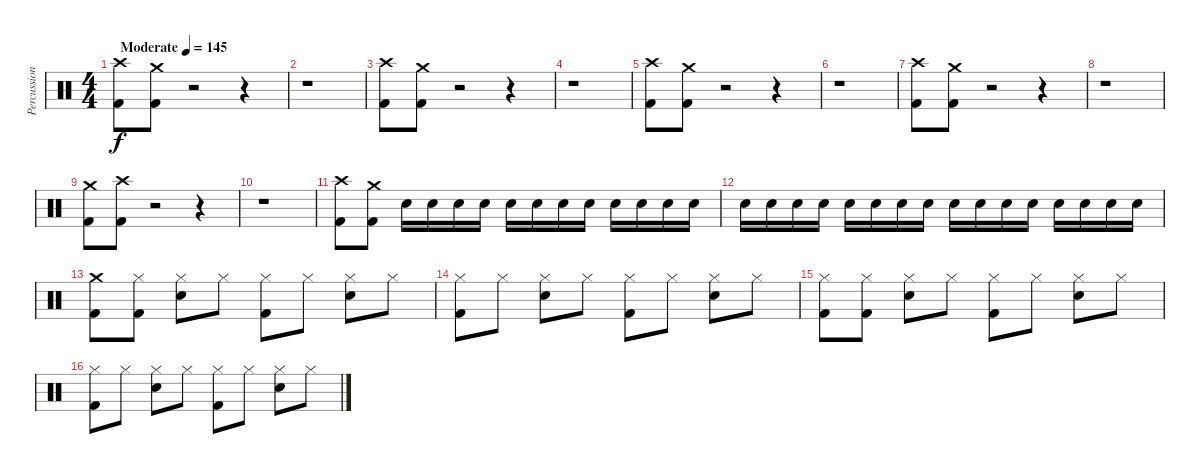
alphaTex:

\track ("Percussion" "Percussion") {instrument percussion}
\staff {score}
\articulation defaults
\ts (4 4)
\tempo (145 "Moderate")
\clef neutral
\ks c
("Kick (hit) 2" "Crash high (hit)").8{dy f} ("Kick (hit) 2" "Crash medium (hit)").8 r.2 r.4 |
r.1 |
("Kick (hit) 2" "Crash high (hit)").8 ("Kick (hit) 2" "Crash medium (hit)").8 r.2 r.4 |
r.1 |
("Kick (hit) 2" "Crash high (hit)").8 ("Kick (hit) 2" "Crash medium (hit)").8 r.2 r.4 |
r.1 |
("Kick (hit) 2" "Crash high (hit)").8 ("Kick (hit) 2" "Crash medium (hit)").8 r.2 r.4 |
r.1 |
("Kick (hit) 2" "Crash medium (hit)").8 ("Kick (hit) 2" "Crash high (hit)").8 r.2 r.4 |
r.1 |
("Kick (hit) 2" "Crash high (hit)").8 ("Kick (hit) 2" "Crash medium (hit)").8 "Snare (hit) 2".16 "Snare (hit) 2".16 "Snare (hit) 2".16 "Snare (hit) 2".16 "Snare (hit) 2".16 "Snare (hit) 2".16 "Snare (hit) 2".16 "Snare (hit) 2".16 "Snare (hit) 2".16 "Snare (hit) 2".16 "Snare (hit) 2".16 "Snare (hit) 2".16 |
"Snare (hit) 2".16 "Snare (hit) 2".16 "Snare (hit) 2".16 "Snare (hit) 2".16 "Snare (hit) 2".16 "Snare (hit) 2".16 "Snare (hit) 2".16 "Snare (hit) 2".16 "Snare (hit) 2".16 "Snare (hit) 2".16 "Snare (hit) 2".16 "Snare (hit) 2".16 "Snare (hit) 2".16 "Snare (hit) 2".16 "Snare (hit) 2".16 "Snare (hit) 2".16 |
("Kick (hit) 2" "Crash medium (hit)").8 ("Kick (hit) 2" "Hi-Hat (closed)").8 ("Snare (hit) 2" "Hi-Hat (closed)").8 "Hi-Hat (closed)".8 ("Kick (hit) 2" "Hi-Hat (closed)").8 "Hi-Hat (closed)".8 ("Snare (hit) 2" "Hi-Hat (closed)").8 "Hi-Hat (closed)".8 |
("Kick (hit) 2" "Hi-Hat (closed)").8 "Hi-Hat (closed)".8 ("Snare (hit) 2" "Hi-Hat (closed)").8 "Hi-Hat (closed)".8 ("Kick (hit) 2" "Hi-Hat (closed)").8 "Hi-Hat (closed)".8 ("Snare (hit) 2" "Hi-Hat (closed)").8 "Hi-Hat (closed)".8 |
("Kick (hit) 2" "Hi-Hat (closed)").8 ("Kick (hit) 2" "Hi-Hat (closed)").8 ("Snare (hit) 2" "Hi-Hat (closed)").8 "Hi-Hat (closed)".8 ("Kick (hit) 2" "Hi-Hat (closed)").8 "Hi-Hat (closed)".8 ("Snare (hit) 2" "Hi-Hat (closed)").8 "Hi-Hat (closed)".8 |
("Kick (hit) 2" "Hi-Hat (closed)").8 "Hi-Hat (closed)".8 ("Snare (hit) 2" "Hi-Hat (closed)").8 "Hi-Hat (closed)".8 ("Kick (hit) 2" "Hi-Hat (closed)").8 "Hi-Hat (closed)".8 ("Snare (hit) 2" "Hi-Hat (closed)").8 "Hi-Hat (closed)".8
